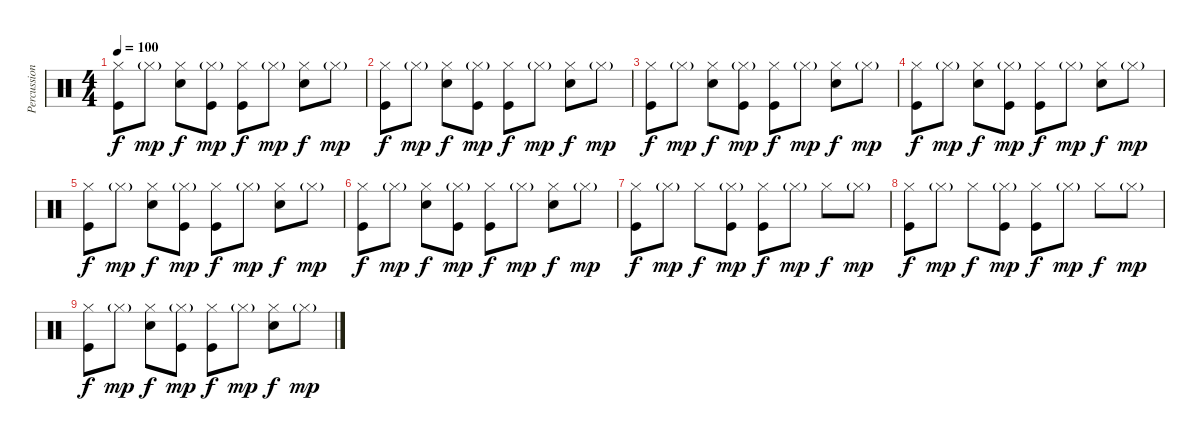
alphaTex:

\track ("Percussion" "Percussion") {instrument percussion bank 242}
\staff {score}
\articulation defaults
\ts (4 4)
\tempo 100
\clef neutral
\ks c
("Hi-Hat (closed)" "Kick (hit)").8{dy f} "Hi-Hat (closed)"{g}.8{dy mp} ("Hi-Hat (closed)" "Snare (hit) 2").8{dy f} ("Hi-Hat (closed)"{g} "Kick (hit)").8{dy mp} ("Hi-Hat (closed)" "Kick (hit)").8{dy f} "Hi-Hat (closed)"{g}.8{dy mp} ("Hi-Hat (closed)" "Snare (hit) 2").8{dy f} "Hi-Hat (closed)"{g}.8{dy mp} |
("Hi-Hat (closed)" "Kick (hit)").8{dy f} "Hi-Hat (closed)"{g}.8{dy mp} ("Hi-Hat (closed)" "Snare (hit) 2").8{dy f} ("Hi-Hat (closed)"{g} "Kick (hit)").8{dy mp} ("Hi-Hat (closed)" "Kick (hit)").8{dy f} "Hi-Hat (closed)"{g}.8{dy mp} ("Hi-Hat (closed)" "Snare (hit) 2").8{dy f} "Hi-Hat (closed)"{g}.8{dy mp} |
("Hi-Hat (closed)" "Kick (hit)").8{dy f} "Hi-Hat (closed)"{g}.8{dy mp} ("Hi-Hat (closed)" "Snare (hit) 2").8{dy f} ("Hi-Hat (closed)"{g} "Kick (hit)").8{dy mp} ("Hi-Hat (closed)" "Kick (hit)").8{dy f} "Hi-Hat (closed)"{g}.8{dy mp} ("Hi-Hat (closed)" "Snare (hit) 2").8{dy f} "Hi-Hat (closed)"{g}.8{dy mp} |
("Hi-Hat (closed)" "Kick (hit)").8{dy f} "Hi-Hat (closed)"{g}.8{dy mp} ("Hi-Hat (closed)" "Snare (hit) 2").8{dy f} ("Hi-Hat (closed)"{g} "Kick (hit)").8{dy mp} ("Hi-Hat (closed)" "Kick (hit)").8{dy f} "Hi-Hat (closed)"{g}.8{dy mp} ("Hi-Hat (closed)" "Snare (hit) 2").8{dy f} "Hi-Hat (closed)"{g}.8{dy mp} |
("Hi-Hat (closed)" "Kick (hit)").8{dy f} "Hi-Hat (closed)"{g}.8{dy mp} ("Hi-Hat (closed)" "Snare (hit) 2").8{dy f} ("Hi-Hat (closed)"{g} "Kick (hit)").8{dy mp} ("Hi-Hat (closed)" "Kick (hit)").8{dy f} "Hi-Hat (closed)"{g}.8{dy mp} ("Hi-Hat (closed)" "Snare (hit) 2").8{dy f} "Hi-Hat (closed)"{g}.8{dy mp} |
("Hi-Hat (closed)" "Kick (hit)").8{dy f} "Hi-Hat (closed)"{g}.8{dy mp} ("Hi-Hat (closed)" "Snare (hit) 2").8{dy f} ("Hi-Hat (closed)"{g} "Kick (hit)").8{dy mp} ("Hi-Hat (closed)" "Kick (hit)").8{dy f} "Hi-Hat (closed)"{g}.8{dy mp} ("Hi-Hat (closed)" "Snare (hit) 2").8{dy f} "Hi-Hat (closed)"{g}.8{dy mp} |
("Hi-Hat (closed)" "Kick (hit)").8{dy f} "Hi-Hat (closed)"{g}.8{dy mp} "Hi-Hat (closed)".8{dy f} ("Hi-Hat (closed)"{g} "Kick (hit)").8{dy mp} ("Hi-Hat (closed)" "Kick (hit)").8{dy f} "Hi-Hat (closed)"{g}.8{dy mp} "Hi-Hat (closed)".8{dy f} "Hi-Hat (closed)"{g}.8{dy mp} |
("Hi-Hat (closed)" "Kick (hit)").8{dy f} "Hi-Hat (closed)"{g}.8{dy mp} "Hi-Hat (closed)".8{dy f} ("Hi-Hat (closed)"{g} "Kick (hit)").8{dy mp} ("Hi-Hat (closed)" "Kick (hit)").8{dy f} "Hi-Hat (closed)"{g}.8{dy mp} "Hi-Hat (closed)".8{dy f} "Hi-Hat (closed)"{g}.8{dy mp} |
("Hi-Hat (closed)" "Kick (hit)").8{dy f} "Hi-Hat (closed)"{g}.8{dy mp} ("Hi-Hat (closed)" "Snare (hit) 2").8{dy f} ("Hi-Hat (closed)"{g} "Kick (hit)").8{dy mp} ("Hi-Hat (closed)" "Kick (hit)").8{dy f} "Hi-Hat (closed)"{g}.8{dy mp} ("Hi-Hat (closed)" "Snare (hit) 2").8{dy f} "Hi-Hat (closed)"{g}.8{dy mp}
